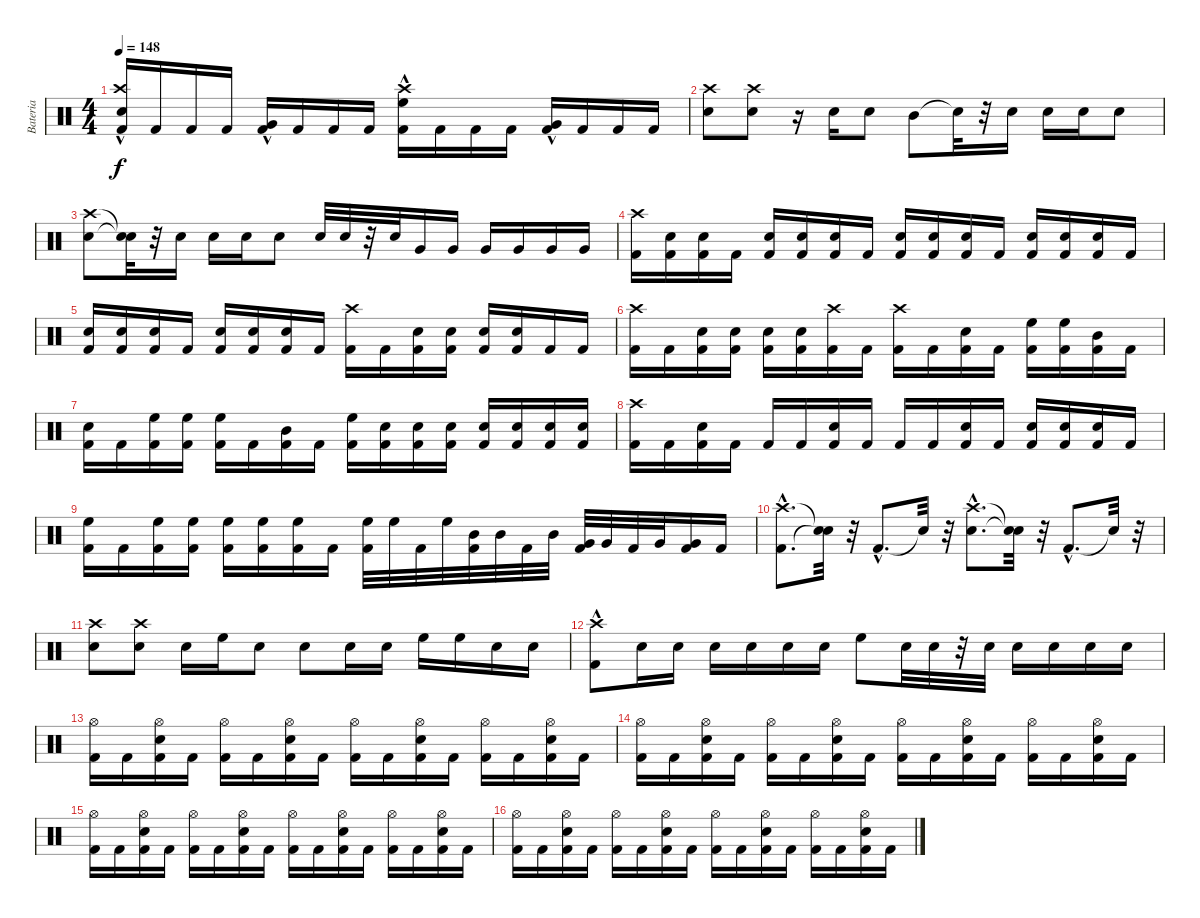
\track ("Bateria" "Bateria") {instrument percussion}
\staff {score}
\articulation defaults
\ts (4 4)
\tempo 148
\clef neutral
\ks c
("Kick (hit) 2" "Crash high (hit)"{hac} "Snare (hit) 2"{hac}).16{dy f} "Kick (hit) 2".16 "Kick (hit) 2".16 "Kick (hit) 2".16 ("Kick (hit) 2" "Very Low Tom (hit)"{hac}).16 "Kick (hit) 2".16 "Kick (hit) 2".16 "Kick (hit) 2".16 ("Kick (hit) 2" "Crash high (hit)"{hac} "High Floor Tom (hit)"{hac}).16 "Kick (hit) 2".16 "Kick (hit) 2".16 "Kick (hit) 2".16 ("Kick (hit) 2" "Very Low Tom (hit)"{hac}).16 "Kick (hit) 2".16 "Kick (hit) 2".16 "Kick (hit) 2".16 |
("Crash high (hit)" "Snare (hit) 2").8 ("Crash high (hit)" "Snare (hit) 2").8 r.16 "Snare (hit) 2".16 "Snare (hit) 2".8 "Mid Tom (hit)".8 "Snare (hit)"{t}.32 r.32 "Snare (hit) 2".16 "Snare (hit) 2".16 "Snare (hit) 2".16 "Snare (hit) 2".8 |
("Crash high (hit)" "Snare (hit) 2").8 ("Snare (hit)"{t} "Snare (hit)"{t}).32 r.32 "Snare (hit) 2".16 "Snare (hit) 2".16 "Snare (hit) 2".16 "Snare (hit) 2".8 "Snare (hit) 2".32 "Snare (hit) 2".32 r.32 "Snare (hit) 2".32 "Very Low Tom (hit)".16 "Very Low Tom (hit)".16 "Very Low Tom (hit)".16 "Very Low Tom (hit)".16 "Very Low Tom (hit)".16 "Very Low Tom (hit)".16 |
("Kick (hit) 2" "Crash high (hit)").16 ("Kick (hit) 2" "Snare (hit) 2").16 ("Kick (hit) 2" "Snare (hit) 2").16 "Kick (hit) 2".16 ("Kick (hit) 2" "Snare (hit) 2").16 ("Kick (hit) 2" "Snare (hit) 2").16 ("Kick (hit) 2" "Snare (hit) 2").16 "Kick (hit) 2".16 ("Kick (hit) 2" "Snare (hit) 2").16 ("Kick (hit) 2" "Snare (hit) 2").16 ("Kick (hit) 2" "Snare (hit) 2").16 "Kick (hit) 2".16 ("Kick (hit) 2" "Snare (hit) 2").16 ("Kick (hit) 2" "Snare (hit) 2").16 ("Kick (hit) 2" "Snare (hit) 2").16 "Kick (hit) 2".16 |
("Kick (hit) 2" "Snare (hit) 2").16 ("Kick (hit) 2" "Snare (hit) 2").16 ("Kick (hit) 2" "Snare (hit) 2").16 "Kick (hit) 2".16 ("Kick (hit) 2" "Snare (hit) 2").16 ("Kick (hit) 2" "Snare (hit) 2").16 ("Kick (hit) 2" "Snare (hit) 2").16 "Kick (hit) 2".16 ("Kick (hit) 2" "Crash high (hit)").16 "Kick (hit) 2".16 ("Kick (hit) 2" "Snare (hit) 2").16 ("Kick (hit) 2" "Snare (hit) 2").16 ("Kick (hit) 2" "Snare (hit) 2").16 ("Kick (hit) 2" "Snare (hit) 2").16 "Kick (hit) 2".16 "Kick (hit) 2".16 |
("Kick (hit) 2" "Crash high (hit)").16 "Kick (hit) 2".16 ("Kick (hit) 2" "Snare (hit) 2").16 ("Kick (hit) 2" "Snare (hit) 2").16 ("Kick (hit) 2" "Snare (hit) 2").16 ("Kick (hit) 2" "Snare (hit) 2").16 ("Kick (hit) 2" "Crash high (hit)").16 "Kick (hit) 2".16 ("Crash high (hit)" "Kick (hit) 2").16 "Kick (hit) 2".16 ("Snare (hit) 2" "Kick (hit) 2").16 "Kick (hit) 2".16 ("High Floor Tom (hit)" "Kick (hit) 2").16 ("High Floor Tom (hit)" "Kick (hit) 2").16 ("Mid Tom (hit)" "Kick (hit) 2").16 "Kick (hit) 2".16 |
("Kick (hit) 2" "Snare (hit) 2").16 "Kick (hit) 2".16 ("Kick (hit) 2" "High Floor Tom (hit)").16 ("Kick (hit) 2" "High Floor Tom (hit)").16 ("Kick (hit) 2" "High Floor Tom (hit)").16 "Kick (hit) 2".16 ("Kick (hit) 2" "Mid Tom (hit)").16 "Kick (hit) 2".16 ("Kick (hit) 2" "High Floor Tom (hit)").16 ("Kick (hit) 2" "Snare (hit) 2").16 ("Kick (hit) 2" "Snare (hit) 2").16 ("Kick (hit) 2" "Snare (hit) 2").16 ("Kick (hit) 2" "Snare (hit) 2").16 ("Kick (hit) 2" "Snare (hit) 2").16 ("Kick (hit) 2" "Snare (hit) 2").16 ("Kick (hit) 2" "Snare (hit) 2").16 |
("Kick (hit) 2" "Crash high (hit)").16 "Kick (hit) 2".16 ("Kick (hit) 2" "Snare (hit) 2").16 "Kick (hit) 2".16 "Kick (hit) 2".16 "Kick (hit) 2".16 ("Kick (hit) 2" "Snare (hit) 2").16 "Kick (hit) 2".16 "Kick (hit) 2".16 "Kick (hit) 2".16 ("Kick (hit) 2" "Snare (hit) 2").16 "Kick (hit) 2".16 ("Kick (hit) 2" "Snare (hit) 2").16 ("Kick (hit) 2" "Snare (hit) 2").16 ("Kick (hit) 2" "Snare (hit) 2").16 "Kick (hit) 2".16 |
("Kick (hit) 2" "High Floor Tom (hit)").16 "Kick (hit) 2".16 ("Kick (hit) 2" "High Floor Tom (hit)").16 ("Kick (hit) 2" "High Floor Tom (hit)").16 ("Kick (hit) 2" "High Floor Tom (hit)").16 ("Kick (hit) 2" "High Floor Tom (hit)").16 ("Kick (hit) 2" "High Floor Tom (hit)").16 "Kick (hit) 2".16 ("Kick (hit) 2" "High Floor Tom (hit)").32 "High Floor Tom (hit)".32 "Kick (hit) 2".32 "High Floor Tom (hit)".32 ("Kick (hit) 2" "Mid Tom (hit)").32 "Mid Tom (hit)".32 "Kick (hit) 2".32 "Mid Tom (hit)".32 ("Kick (hit) 2" "Very Low Tom (hit)").32 "Very Low Tom (hit)".32 "Kick (hit) 2".32 "Very Low Tom (hit)".32 ("Kick (hit) 2" "Very Low Tom (hit)").16 "Kick (hit) 2".16 |
("Kick (hit) 2"{hac} "Crash high (hit)"{hac}).8{d} ("Snare (hit)"{t} "Snare (hit)"{t}).32 r.32 "Kick (hit) 2"{hac}.8{d} "Snare (hit)"{t}.32 r.32 ("Snare (hit) 2"{hac} "Crash high (hit)"{hac}).8{d} ("Snare (hit)"{t} "Snare (hit)"{t}).32 r.32 "Kick (hit) 2"{hac}.8{d} "Snare (hit)"{t}.32 r.32 |
("Snare (hit) 2" "Crash high (hit)").8 ("Snare (hit) 2" "Crash high (hit)").8 "Snare (hit) 2".16 "High Floor Tom (hit)".16 "Snare (hit) 2".8 "Snare (hit) 2".8 "Snare (hit) 2".16 "Snare (hit) 2".16 "High Floor Tom (hit)".16 "High Floor Tom (hit)".16 "Snare (hit) 2".16 "Snare (hit) 2".16 |
("Kick (hit) 2"{hac} "Crash high (hit)").8 "Snare (hit) 2".16 "Snare (hit) 2".16 "Snare (hit) 2".16 "Snare (hit) 2".16 "Snare (hit) 2".16 "Snare (hit) 2".16 "High Floor Tom (hit)".8 "Snare (hit) 2".32 "Snare (hit) 2".32 r.32 "Snare (hit) 2".32 "Snare (hit) 2".16 "Snare (hit) 2".16 "Snare (hit) 2".16 "Snare (hit) 2".16 |
("Kick (hit) 2" "Hi-Hat (open)").16 "Kick (hit) 2".16 ("Kick (hit) 2" "Snare (hit) 2" "Hi-Hat (open)").16 "Kick (hit) 2".16 ("Kick (hit) 2" "Hi-Hat (open)").16 "Kick (hit) 2".16 ("Kick (hit) 2" "Snare (hit) 2" "Hi-Hat (open)").16 "Kick (hit) 2".16 ("Kick (hit) 2" "Hi-Hat (open)").16 "Kick (hit) 2".16 ("Kick (hit) 2" "Snare (hit) 2" "Hi-Hat (open)").16 "Kick (hit) 2".16 ("Kick (hit) 2" "Hi-Hat (open)").16 "Kick (hit) 2".16 ("Kick (hit) 2" "Snare (hit) 2" "Hi-Hat (open)").16 "Kick (hit) 2".16 |
("Kick (hit) 2" "Hi-Hat (open)").16 "Kick (hit) 2".16 ("Kick (hit) 2" "Snare (hit) 2" "Hi-Hat (open)").16 "Kick (hit) 2".16 ("Kick (hit) 2" "Hi-Hat (open)").16 "Kick (hit) 2".16 ("Kick (hit) 2" "Snare (hit) 2" "Hi-Hat (open)").16 "Kick (hit) 2".16 ("Kick (hit) 2" "Hi-Hat (open)").16 "Kick (hit) 2".16 ("Kick (hit) 2" "Snare (hit) 2" "Hi-Hat (open)").16 "Kick (hit) 2".16 ("Kick (hit) 2" "Hi-Hat (open)").16 "Kick (hit) 2".16 ("Kick (hit) 2" "Snare (hit) 2" "Hi-Hat (open)").16 "Kick (hit) 2".16 |
("Kick (hit) 2" "Hi-Hat (open)").16 "Kick (hit) 2".16 ("Kick (hit) 2" "Snare (hit) 2" "Hi-Hat (open)").16 "Kick (hit) 2".16 ("Kick (hit) 2" "Hi-Hat (open)").16 "Kick (hit) 2".16 ("Kick (hit) 2" "Snare (hit) 2" "Hi-Hat (open)").16 "Kick (hit) 2".16 ("Kick (hit) 2" "Hi-Hat (open)").16 "Kick (hit) 2".16 ("Kick (hit) 2" "Snare (hit) 2" "Hi-Hat (open)").16 "Kick (hit) 2".16 ("Kick (hit) 2" "Hi-Hat (open)").16 "Kick (hit) 2".16 ("Kick (hit) 2" "Snare (hit) 2" "Hi-Hat (open)").16 "Kick (hit) 2".16 |
("Kick (hit) 2" "Hi-Hat (open)").16 "Kick (hit) 2".16 ("Kick (hit) 2" "Snare (hit) 2" "Hi-Hat (open)").16 "Kick (hit) 2".16 ("Kick (hit) 2" "Hi-Hat (open)").16 "Kick (hit) 2".16 ("Kick (hit) 2" "Snare (hit) 2" "Hi-Hat (open)").16 "Kick (hit) 2".16 ("Kick (hit) 2" "Hi-Hat (open)").16 "Kick (hit) 2".16 ("Kick (hit) 2" "Snare (hit) 2" "Hi-Hat (open)").16 "Kick (hit) 2".16 ("Kick (hit) 2" "Hi-Hat (open)").16 "Kick (hit) 2".16 ("Kick (hit) 2" "Snare (hit) 2" "Hi-Hat (open)").16 "Kick (hit) 2".16
